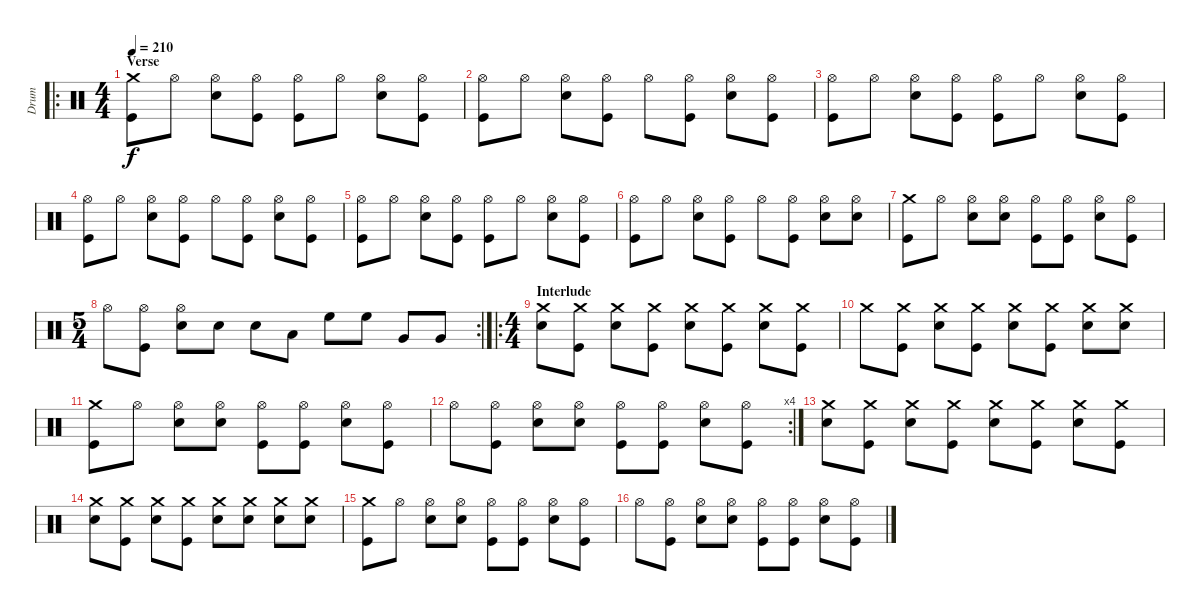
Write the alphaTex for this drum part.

\track ("Drum" "Drum") {instrument percussion}
\staff {score}
\articulation defaults
\ro
\ts (4 4)
\section ("" "Verse")
\tempo 210
\clef neutral
\ks c
("Crash medium (hit)" "Kick (hit)").8{dy f} "Hi-Hat (open)".8 ("Hi-Hat (open)" "Snare (hit) 2").8 ("Hi-Hat (open)" "Kick (hit)").8 ("Hi-Hat (open)" "Kick (hit)").8 "Hi-Hat (open)".8 ("Hi-Hat (open)" "Snare (hit) 2").8 ("Hi-Hat (open)" "Kick (hit)").8 |
("Hi-Hat (open)" "Kick (hit)").8 "Hi-Hat (open)".8 ("Hi-Hat (open)" "Snare (hit) 2").8 ("Hi-Hat (open)" "Kick (hit)").8 "Hi-Hat (open)".8 ("Hi-Hat (open)" "Kick (hit)").8 ("Hi-Hat (open)" "Snare (hit) 2").8 ("Hi-Hat (open)" "Kick (hit)").8 |
("Hi-Hat (open)" "Kick (hit)").8 "Hi-Hat (open)".8 ("Hi-Hat (open)" "Snare (hit) 2").8 ("Hi-Hat (open)" "Kick (hit)").8 ("Hi-Hat (open)" "Kick (hit)").8 "Hi-Hat (open)".8 ("Hi-Hat (open)" "Snare (hit) 2").8 ("Hi-Hat (open)" "Kick (hit)").8 |
("Hi-Hat (open)" "Kick (hit)").8 "Hi-Hat (open)".8 ("Hi-Hat (open)" "Snare (hit) 2").8 ("Hi-Hat (open)" "Kick (hit)").8 "Hi-Hat (open)".8 ("Hi-Hat (open)" "Kick (hit)").8 ("Hi-Hat (open)" "Snare (hit) 2").8 ("Hi-Hat (open)" "Kick (hit)").8 |
("Hi-Hat (open)" "Kick (hit)").8 "Hi-Hat (open)".8 ("Hi-Hat (open)" "Snare (hit) 2").8 ("Hi-Hat (open)" "Kick (hit)").8 ("Hi-Hat (open)" "Kick (hit)").8 "Hi-Hat (open)".8 ("Hi-Hat (open)" "Snare (hit) 2").8 ("Hi-Hat (open)" "Kick (hit)").8 |
("Hi-Hat (open)" "Kick (hit)").8 "Hi-Hat (open)".8 ("Hi-Hat (open)" "Snare (hit) 2").8 ("Hi-Hat (open)" "Kick (hit)").8 "Hi-Hat (open)".8 ("Hi-Hat (open)" "Kick (hit)").8 ("Hi-Hat (open)" "Snare (hit) 2").8 ("Hi-Hat (open)" "Snare (hit) 2").8 |
("Crash medium (hit)" "Kick (hit)").8 "Hi-Hat (open)".8 ("Hi-Hat (open)" "Snare (hit) 2").8 ("Hi-Hat (open)" "Snare (hit) 2").8 ("Hi-Hat (open)" "Kick (hit)").8 ("Hi-Hat (open)" "Kick (hit)").8 ("Hi-Hat (open)" "Snare (hit) 2").8 ("Hi-Hat (open)" "Kick (hit)").8 |
\rc 2
\ts (5 4)
"Hi-Hat (open)".8 ("Hi-Hat (open)" "Kick (hit)").8 ("Hi-Hat (open)" "Snare (hit) 2").8 "Snare (hit) 2".8 "Snare (hit) 2".8 "Low Tom (hit)".8 "High Floor Tom (hit)".8 "High Floor Tom (hit)".8 "Very Low Tom (hit)".8 "Very Low Tom (hit)".8 |
\ro
\ts (4 4)
\section ("" "Interlude")
("Crash medium (hit)" "Snare (hit) 2").8 ("Crash medium (hit)" "Kick (hit)").8 ("Crash medium (hit)" "Snare (hit) 2").8 ("Crash medium (hit)" "Kick (hit)").8 ("Crash medium (hit)" "Snare (hit) 2").8 ("Crash medium (hit)" "Kick (hit)").8 ("Crash medium (hit)" "Snare (hit) 2").8 ("Crash medium (hit)" "Kick (hit)").8 |
"Crash medium (hit)".8 ("Crash medium (hit)" "Kick (hit)").8 ("Crash medium (hit)" "Snare (hit) 2").8 ("Crash medium (hit)" "Kick (hit)").8 ("Crash medium (hit)" "Snare (hit) 2").8 ("Crash medium (hit)" "Kick (hit)").8 ("Crash medium (hit)" "Snare (hit) 2").8 ("Crash medium (hit)" "Snare (hit) 2").8 |
("Crash medium (hit)" "Kick (hit)").8 "Hi-Hat (open)".8 ("Hi-Hat (open)" "Snare (hit) 2").8 ("Hi-Hat (open)" "Snare (hit) 2").8 ("Hi-Hat (open)" "Kick (hit)").8 ("Hi-Hat (open)" "Kick (hit)").8 ("Hi-Hat (open)" "Snare (hit) 2").8 ("Hi-Hat (open)" "Kick (hit)").8 |
\rc 4 "Hi-Hat (open)".8
("Hi-Hat (open)" "Kick (hit)").8 ("Hi-Hat (open)" "Snare (hit) 2").8 ("Hi-Hat (open)" "Snare (hit) 2").8 ("Hi-Hat (open)" "Kick (hit)").8 ("Hi-Hat (open)" "Kick (hit)").8 ("Hi-Hat (open)" "Snare (hit) 2").8 ("Hi-Hat (open)" "Kick (hit)").8 |
("Crash medium (hit)" "Snare (hit) 2").8 ("Crash medium (hit)" "Kick (hit)").8 ("Crash medium (hit)" "Snare (hit) 2").8 ("Crash medium (hit)" "Kick (hit)").8 ("Crash medium (hit)" "Snare (hit) 2").8 ("Crash medium (hit)" "Kick (hit)").8 ("Crash medium (hit)" "Snare (hit) 2").8 ("Crash medium (hit)" "Kick (hit)").8 |
("Crash medium (hit)" "Snare (hit) 2").8 ("Crash medium (hit)" "Kick (hit)").8 ("Crash medium (hit)" "Snare (hit) 2").8 ("Crash medium (hit)" "Kick (hit)").8 ("Crash medium (hit)" "Snare (hit) 2").8 ("Crash medium (hit)" "Snare (hit) 2").8 ("Crash medium (hit)" "Snare (hit) 2").8 ("Crash medium (hit)" "Snare (hit) 2").8 |
("Crash medium (hit)" "Kick (hit)").8 "Hi-Hat (open)".8 ("Hi-Hat (open)" "Snare (hit) 2").8 ("Hi-Hat (open)" "Snare (hit) 2").8 ("Hi-Hat (open)" "Kick (hit)").8 ("Hi-Hat (open)" "Kick (hit)").8 ("Hi-Hat (open)" "Snare (hit) 2").8 ("Hi-Hat (open)" "Kick (hit)").8 |
"Hi-Hat (open)".8 ("Hi-Hat (open)" "Kick (hit)").8 ("Hi-Hat (open)" "Snare (hit) 2").8 ("Hi-Hat (open)" "Snare (hit) 2").8 ("Hi-Hat (open)" "Kick (hit)").8 ("Hi-Hat (open)" "Kick (hit)").8 ("Hi-Hat (open)" "Snare (hit) 2").8 ("Hi-Hat (open)" "Kick (hit)").8
